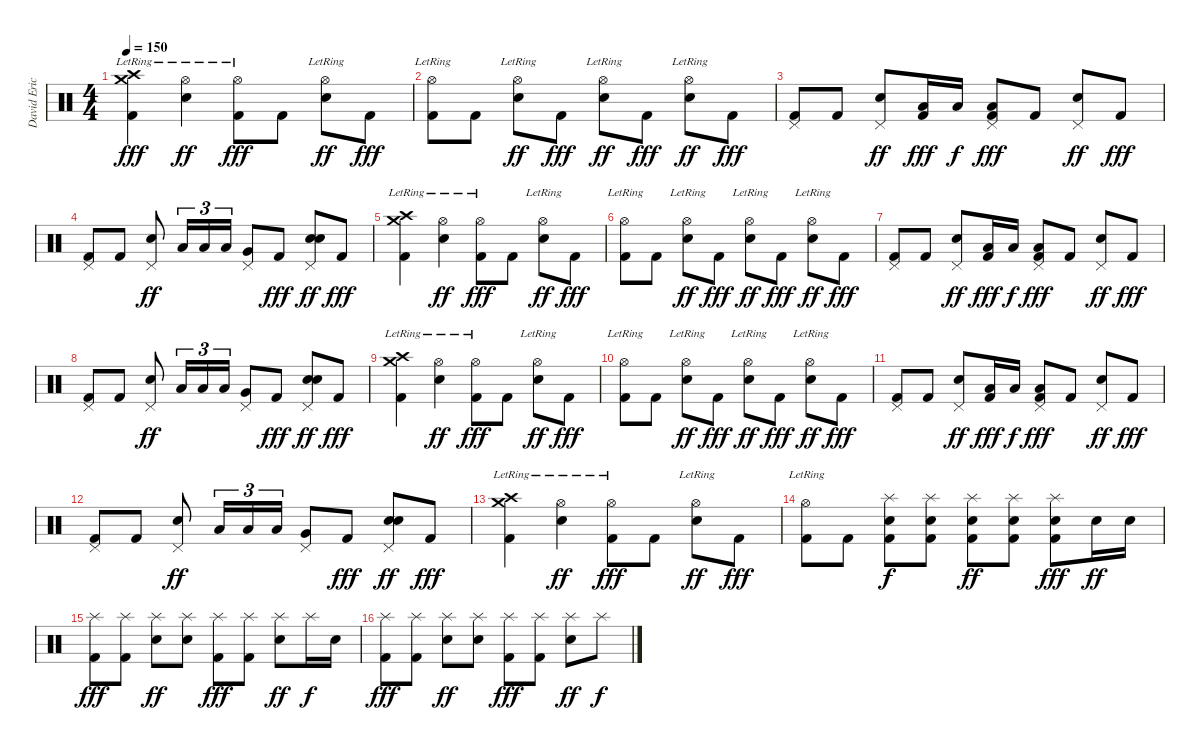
\track ("David Eric Grohl" "David Eric") {instrument percussion}
\staff {score}
\articulation defaults
\ts (4 4)
\tempo 150
\clef neutral
\ks c
("Crash medium (hit)"{lr} "Crash high (hit)"{lr} "Kick (hit) 2").4{dy fff} ("Hi-Hat (open)"{lr} "Electric Snare (hit)").4{dy ff} ("Hi-Hat (open)"{lr} "Kick (hit) 2").8{dy fff} "Kick (hit) 2".8 ("Hi-Hat (open)"{lr} "Electric Snare (hit)").8{dy ff} "Kick (hit) 2".8{dy fff} |
("Hi-Hat (open)"{lr} "Kick (hit) 2").8 "Kick (hit) 2".8 ("Hi-Hat (open)"{lr} "Electric Snare (hit)").8{dy ff} "Kick (hit) 2".8{dy fff} ("Hi-Hat (open)"{lr} "Electric Snare (hit)").8{dy ff} "Kick (hit) 2".8{dy fff} ("Hi-Hat (open)"{lr} "Electric Snare (hit)").8{dy ff} "Kick (hit) 2".8{dy fff} |
("Pedal Hi-Hat (hit)" "Kick (hit) 2").8 "Kick (hit) 2".8 ("Pedal Hi-Hat (hit)" "Electric Snare (hit)").8{dy ff} ("Low Tom (hit)" "Kick (hit) 2").16{dy fff} "Low Tom (hit)".16{dy f} ("Pedal Hi-Hat (hit)" "Low Tom (hit)" "Kick (hit) 2").8{dy fff} "Kick (hit) 2".8 ("Pedal Hi-Hat (hit)" "Electric Snare (hit)").8{dy ff} "Kick (hit) 2".8{dy fff} |
("Pedal Hi-Hat (hit)" "Kick (hit) 2").8 "Kick (hit) 2".8 ("Pedal Hi-Hat (hit)" "Electric Snare (hit)").8{dy ff} "Low Tom (hit)".16{tu (3 2)} "Low Tom (hit)".16{tu (3 2)} "Low Tom (hit)".16{tu (3 2)} ("Pedal Hi-Hat (hit)" "Very Low Tom (hit)").8 "Kick (hit) 2".8{dy fff} ("Pedal Hi-Hat (hit)" "Electric Snare (hit)" "Electric Snare (hit)").8{dy ff} "Kick (hit) 2".8{dy fff} |
("Crash medium (hit)"{lr} "Crash high (hit)"{lr} "Kick (hit) 2").4 ("Hi-Hat (open)"{lr} "Electric Snare (hit)").4{dy ff} ("Hi-Hat (open)"{lr} "Kick (hit) 2").8{dy fff} "Kick (hit) 2".8 ("Hi-Hat (open)"{lr} "Electric Snare (hit)").8{dy ff} "Kick (hit) 2".8{dy fff} |
("Hi-Hat (open)"{lr} "Kick (hit) 2").8 "Kick (hit) 2".8 ("Hi-Hat (open)"{lr} "Electric Snare (hit)").8{dy ff} "Kick (hit) 2".8{dy fff} ("Hi-Hat (open)"{lr} "Electric Snare (hit)").8{dy ff} "Kick (hit) 2".8{dy fff} ("Hi-Hat (open)"{lr} "Electric Snare (hit)").8{dy ff} "Kick (hit) 2".8{dy fff} |
("Pedal Hi-Hat (hit)" "Kick (hit) 2").8 "Kick (hit) 2".8 ("Pedal Hi-Hat (hit)" "Electric Snare (hit)").8{dy ff} ("Low Tom (hit)" "Kick (hit) 2").16{dy fff} "Low Tom (hit)".16{dy f} ("Pedal Hi-Hat (hit)" "Low Tom (hit)" "Kick (hit) 2").8{dy fff} "Kick (hit) 2".8 ("Pedal Hi-Hat (hit)" "Electric Snare (hit)").8{dy ff} "Kick (hit) 2".8{dy fff} |
("Pedal Hi-Hat (hit)" "Kick (hit) 2").8 "Kick (hit) 2".8 ("Pedal Hi-Hat (hit)" "Electric Snare (hit)").8{dy ff} "Low Tom (hit)".16{tu (3 2)} "Low Tom (hit)".16{tu (3 2)} "Low Tom (hit)".16{tu (3 2)} ("Pedal Hi-Hat (hit)" "Very Low Tom (hit)").8 "Kick (hit) 2".8{dy fff} ("Pedal Hi-Hat (hit)" "Electric Snare (hit)" "Electric Snare (hit)").8{dy ff} "Kick (hit) 2".8{dy fff} |
("Crash medium (hit)"{lr} "Crash high (hit)"{lr} "Kick (hit) 2").4 ("Hi-Hat (open)"{lr} "Electric Snare (hit)").4{dy ff} ("Hi-Hat (open)"{lr} "Kick (hit) 2").8{dy fff} "Kick (hit) 2".8 ("Hi-Hat (open)"{lr} "Electric Snare (hit)").8{dy ff} "Kick (hit) 2".8{dy fff} |
("Hi-Hat (open)"{lr} "Kick (hit) 2").8 "Kick (hit) 2".8 ("Hi-Hat (open)"{lr} "Electric Snare (hit)").8{dy ff} "Kick (hit) 2".8{dy fff} ("Hi-Hat (open)"{lr} "Electric Snare (hit)").8{dy ff} "Kick (hit) 2".8{dy fff} ("Hi-Hat (open)"{lr} "Electric Snare (hit)").8{dy ff} "Kick (hit) 2".8{dy fff} |
("Pedal Hi-Hat (hit)" "Kick (hit) 2").8 "Kick (hit) 2".8 ("Pedal Hi-Hat (hit)" "Electric Snare (hit)").8{dy ff} ("Low Tom (hit)" "Kick (hit) 2").16{dy fff} "Low Tom (hit)".16{dy f} ("Pedal Hi-Hat (hit)" "Low Tom (hit)" "Kick (hit) 2").8{dy fff} "Kick (hit) 2".8 ("Pedal Hi-Hat (hit)" "Electric Snare (hit)").8{dy ff} "Kick (hit) 2".8{dy fff} |
("Pedal Hi-Hat (hit)" "Kick (hit) 2").8 "Kick (hit) 2".8 ("Pedal Hi-Hat (hit)" "Electric Snare (hit)").8{dy ff} "Low Tom (hit)".16{tu (3 2)} "Low Tom (hit)".16{tu (3 2)} "Low Tom (hit)".16{tu (3 2)} ("Pedal Hi-Hat (hit)" "Very Low Tom (hit)").8 "Kick (hit) 2".8{dy fff} ("Pedal Hi-Hat (hit)" "Electric Snare (hit)" "Electric Snare (hit)").8{dy ff} "Kick (hit) 2".8{dy fff} |
("Crash medium (hit)"{lr} "Crash high (hit)"{lr} "Kick (hit) 2").4 ("Hi-Hat (open)"{lr} "Electric Snare (hit)").4{dy ff} ("Hi-Hat (open)"{lr} "Kick (hit) 2").8{dy fff} "Kick (hit) 2".8 ("Hi-Hat (open)"{lr} "Electric Snare (hit)").8{dy ff} "Kick (hit) 2".8{dy fff} |
("Hi-Hat (open)"{lr} "Kick (hit) 2").8 "Kick (hit) 2".8 ("Splash (hit)" "Electric Snare (hit)" "Kick (hit) 2").8{dy f} ("Splash (hit)" "Electric Snare (hit)" "Kick (hit) 2").8 ("Splash (hit)" "Electric Snare (hit)" "Kick (hit) 2").8{dy ff} ("Splash (hit)" "Electric Snare (hit)" "Kick (hit) 2").8 ("Splash (hit)" "Electric Snare (hit)" "Kick (hit) 2").8{dy fff} "Electric Snare (hit)".16{dy ff} "Electric Snare (hit)".16 |
("Splash (hit)" "Kick (hit) 2").8{dy fff} ("Splash (hit)" "Kick (hit) 2").8 ("Splash (hit)" "Electric Snare (hit)").8{dy ff} ("Splash (hit)" "Electric Snare (hit)").8 ("Splash (hit)" "Kick (hit) 2").8{dy fff} ("Splash (hit)" "Kick (hit) 2").8 ("Splash (hit)" "Electric Snare (hit)").8{dy ff} "Splash (hit)".16{dy f} "Electric Snare (hit)".16 |
("Splash (hit)" "Kick (hit) 2").8{dy fff} ("Splash (hit)" "Kick (hit) 2").8 ("Splash (hit)" "Electric Snare (hit)").8{dy ff} ("Splash (hit)" "Electric Snare (hit)").8 ("Splash (hit)" "Kick (hit) 2").8{dy fff} ("Splash (hit)" "Kick (hit) 2").8 ("Splash (hit)" "Electric Snare (hit)").8{dy ff} "Splash (hit)".8{dy f}
